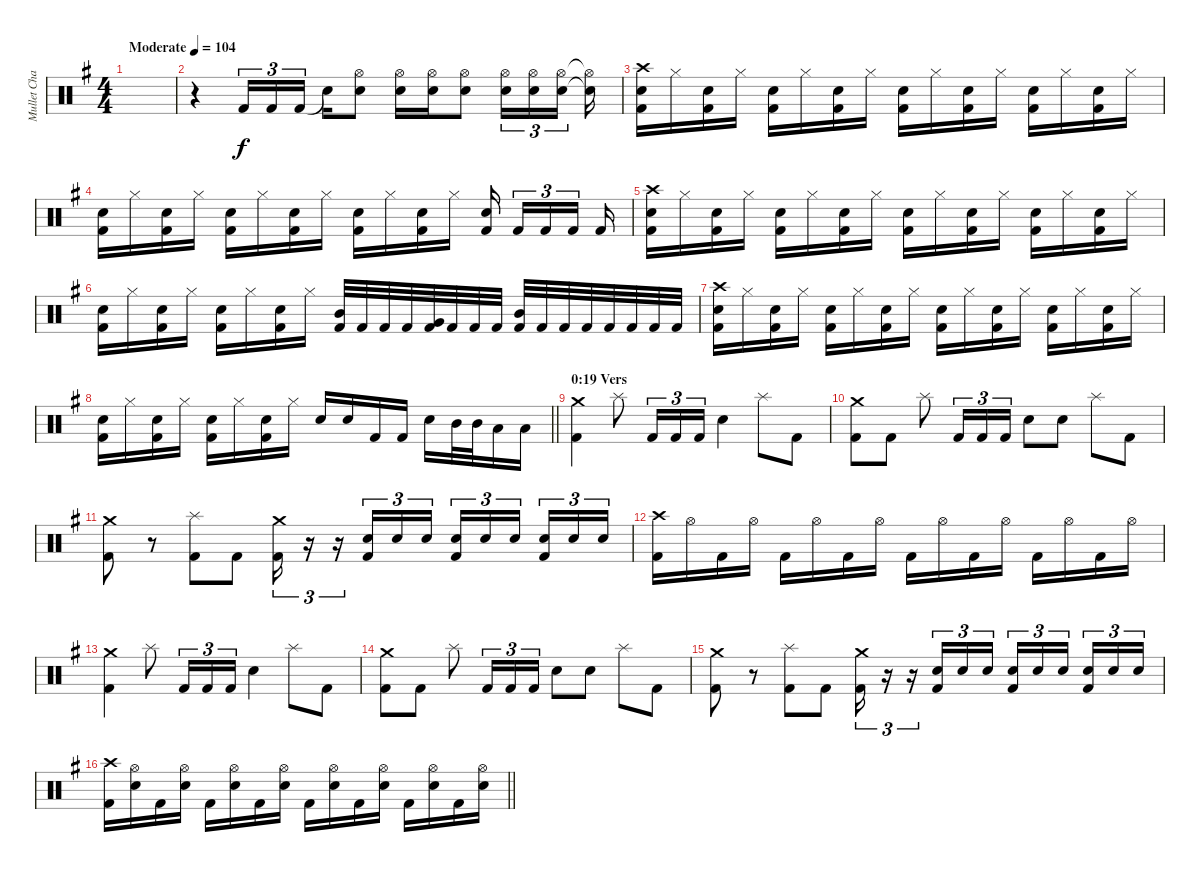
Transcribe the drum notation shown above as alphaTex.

\track ("Mullet Chad" "Mullet Cha") {instrument percussion}
\staff {score}
\articulation defaults
\ts (4 4)
\tempo (104 "Moderate")
\clef neutral
\ks g
|
r.4 "Kick (hit) 2".16{tu (3 2)} "Kick (hit) 2".16{tu (3 2)} "Kick (hit) 2".16{tu (3 2) beam splitsecondary} "Snare (hit)"{t}.16 ("Snare (hit) 2" "Hi-Hat (open)").8 ("Snare (hit) 2" "Hi-Hat (open)").16 ("Snare (hit) 2" "Hi-Hat (open)").16 ("Snare (hit) 2" "Hi-Hat (open)").8 ("Snare (hit) 2" "Hi-Hat (open)").16{tu (3 2)} ("Snare (hit) 2" "Hi-Hat (open)").16{tu (3 2)} ("Snare (hit) 2" "Hi-Hat (open)").16{tu (3 2) beam splitsecondary} ("Snare (hit) 2"{t} "Hi-Hat (open)"{t}).16 |
("Crash high (hit)" "Snare (hit) 2" "Kick (hit) 2").16 "Hi-Hat (closed)".16 ("Snare (hit) 2" "Kick (hit) 2").16 "Hi-Hat (closed)".16 ("Snare (hit) 2" "Kick (hit) 2").16 "Hi-Hat (closed)".16 ("Snare (hit) 2" "Kick (hit) 2").16 "Hi-Hat (closed)".16 ("Snare (hit) 2" "Kick (hit) 2").16 "Hi-Hat (closed)".16 ("Snare (hit) 2" "Kick (hit) 2").16 "Hi-Hat (closed)".16 ("Snare (hit) 2" "Kick (hit) 2").16 "Hi-Hat (closed)".16 ("Snare (hit) 2" "Kick (hit) 2").16 "Hi-Hat (closed)".16 |
("Snare (hit) 2" "Kick (hit) 2").16 "Hi-Hat (closed)".16 ("Snare (hit) 2" "Kick (hit) 2").16 "Hi-Hat (closed)".16 ("Snare (hit) 2" "Kick (hit) 2").16 "Hi-Hat (closed)".16 ("Snare (hit) 2" "Kick (hit) 2").16 "Hi-Hat (closed)".16 ("Snare (hit) 2" "Kick (hit) 2").16 "Hi-Hat (closed)".16 ("Snare (hit) 2" "Kick (hit) 2").16 "Hi-Hat (closed)".16 ("Snare (hit) 2" "Kick (hit) 2").16{beam splitsecondary} "Kick (hit) 2".16{tu (3 2)} "Kick (hit) 2".16{tu (3 2)} "Kick (hit) 2".16{tu (3 2) beam splitsecondary} "Kick (hit) 2".16 |
("Crash high (hit)" "Snare (hit) 2" "Kick (hit) 2").16 "Hi-Hat (closed)".16 ("Snare (hit) 2" "Kick (hit) 2").16 "Hi-Hat (closed)".16 ("Snare (hit) 2" "Kick (hit) 2").16 "Hi-Hat (closed)".16 ("Snare (hit) 2" "Kick (hit) 2").16 "Hi-Hat (closed)".16 ("Snare (hit) 2" "Kick (hit) 2").16 "Hi-Hat (closed)".16 ("Snare (hit) 2" "Kick (hit) 2").16 "Hi-Hat (closed)".16 ("Snare (hit) 2" "Kick (hit) 2").16 "Hi-Hat (closed)".16 ("Snare (hit) 2" "Kick (hit) 2").16 "Hi-Hat (closed)".16 |
("Snare (hit) 2" "Kick (hit) 2").16 "Hi-Hat (closed)".16 ("Snare (hit) 2" "Kick (hit) 2").16 "Hi-Hat (closed)".16 ("Snare (hit) 2" "Kick (hit) 2").16 "Hi-Hat (closed)".16 ("Snare (hit) 2" "Kick (hit) 2").16 "Hi-Hat (closed)".16 ("Mid Tom (hit)" "Kick (hit) 2").32 "Kick (hit) 2".32 "Kick (hit) 2".32 "Kick (hit) 2".32 ("Very Low Tom (hit)" "Kick (hit) 2").32 "Kick (hit) 2".32 "Kick (hit) 2".32 "Kick (hit) 2".32 ("Mid Tom (hit)" "Kick (hit) 2").32 "Kick (hit) 2".32 "Kick (hit) 2".32 "Kick (hit) 2".32 "Kick (hit) 2".32 "Kick (hit) 2".32 "Kick (hit) 2".32 "Kick (hit) 2".32 |
("Crash high (hit)" "Snare (hit) 2" "Kick (hit) 2").16 "Hi-Hat (closed)".16 ("Snare (hit) 2" "Kick (hit) 2").16 "Hi-Hat (closed)".16 ("Snare (hit) 2" "Kick (hit) 2").16 "Hi-Hat (closed)".16 ("Snare (hit) 2" "Kick (hit) 2").16 "Hi-Hat (closed)".16 ("Snare (hit) 2" "Kick (hit) 2").16 "Hi-Hat (closed)".16 ("Snare (hit) 2" "Kick (hit) 2").16 "Hi-Hat (closed)".16 ("Snare (hit) 2" "Kick (hit) 2").16 "Hi-Hat (closed)".16 ("Snare (hit) 2" "Kick (hit) 2").16 "Hi-Hat (closed)".16 |
\barLineRight lightlight
("Snare (hit) 2" "Kick (hit) 2").16 "Hi-Hat (closed)".16 ("Snare (hit) 2" "Kick (hit) 2").16 "Hi-Hat (closed)".16 ("Snare (hit) 2" "Kick (hit) 2").16 "Hi-Hat (closed)".16 ("Snare (hit) 2" "Kick (hit) 2").16 "Hi-Hat (closed)".16 "Snare (hit) 2".16 "Snare (hit) 2".16 "Kick (hit) 2".16 "Kick (hit) 2".16 "Snare (hit) 2".16 "Mid Tom (hit)".32 "Mid Tom (hit)".32 "Low Tom (hit)".16 "Low Tom (hit)".16 |
\section ("" "0:19 Vers")
("Crash medium (hit)" "Kick (hit) 2").4 "Splash (hit)".8 "Kick (hit) 2".16{tu (3 2)} "Kick (hit) 2".16{tu (3 2)} "Kick (hit) 2".16{tu (3 2)} "Snare (hit) 2".4 "Splash (hit)".8 "Kick (hit) 2".8 |
("Crash medium (hit)" "Kick (hit) 2").8 "Kick (hit) 2".8 "Splash (hit)".8 "Kick (hit) 2".16{tu (3 2)} "Kick (hit) 2".16{tu (3 2)} "Kick (hit) 2".16{tu (3 2)} "Snare (hit) 2".8 "Snare (hit) 2".8 "Splash (hit)".8 "Kick (hit) 2".8 |
("Crash medium (hit)" "Kick (hit) 2").8 r.8 ("Splash (hit)" "Kick (hit) 2").8 "Kick (hit) 2".8 ("Crash medium (hit)" "Kick (hit) 2").16{tu (3 2)} r.16{tu (3 2)} r.16{tu (3 2)} ("Snare (hit) 2" "Kick (hit) 2").16{tu (3 2)} "Snare (hit) 2".16{tu (3 2)} "Snare (hit) 2".16{tu (3 2)} ("Snare (hit) 2" "Kick (hit) 2").16{tu (3 2)} "Snare (hit) 2".16{tu (3 2)} "Snare (hit) 2".16{tu (3 2) beam splitsecondary} ("Snare (hit) 2" "Kick (hit) 2").16{tu (3 2)} "Snare (hit) 2".16{tu (3 2)} "Snare (hit) 2".16{tu (3 2)} |
("Crash high (hit)" "Kick (hit) 2").16 "Hi-Hat (open)".16 "Kick (hit) 2".16 "Hi-Hat (open)".16 "Kick (hit) 2".16 "Hi-Hat (open)".16 "Kick (hit) 2".16 "Hi-Hat (open)".16 "Kick (hit) 2".16 "Hi-Hat (open)".16 "Kick (hit) 2".16 "Hi-Hat (open)".16 "Kick (hit) 2".16 "Hi-Hat (open)".16 "Kick (hit) 2".16 "Hi-Hat (open)".16 |
("Crash medium (hit)" "Kick (hit) 2").4 "Splash (hit)".8 "Kick (hit) 2".16{tu (3 2)} "Kick (hit) 2".16{tu (3 2)} "Kick (hit) 2".16{tu (3 2)} "Snare (hit) 2".4 "Splash (hit)".8 "Kick (hit) 2".8 |
("Crash medium (hit)" "Kick (hit) 2").8 "Kick (hit) 2".8 "Splash (hit)".8 "Kick (hit) 2".16{tu (3 2)} "Kick (hit) 2".16{tu (3 2)} "Kick (hit) 2".16{tu (3 2)} "Snare (hit) 2".8 "Snare (hit) 2".8 "Splash (hit)".8 "Kick (hit) 2".8 |
("Crash medium (hit)" "Kick (hit) 2").8 r.8 ("Splash (hit)" "Kick (hit) 2").8 "Kick (hit) 2".8 ("Crash medium (hit)" "Kick (hit) 2").16{tu (3 2)} r.16{tu (3 2)} r.16{tu (3 2)} ("Snare (hit) 2" "Kick (hit) 2").16{tu (3 2)} "Snare (hit) 2".16{tu (3 2)} "Snare (hit) 2".16{tu (3 2)} ("Snare (hit) 2" "Kick (hit) 2").16{tu (3 2)} "Snare (hit) 2".16{tu (3 2)} "Snare (hit) 2".16{tu (3 2) beam splitsecondary} ("Snare (hit) 2" "Kick (hit) 2").16{tu (3 2)} "Snare (hit) 2".16{tu (3 2)} "Snare (hit) 2".16{tu (3 2)} |
\barLineRight lightlight
("Crash high (hit)" "Kick (hit) 2").16 ("Hi-Hat (open)" "Snare (hit) 2").16 "Kick (hit) 2".16 ("Hi-Hat (open)" "Snare (hit) 2").16 "Kick (hit) 2".16 ("Hi-Hat (open)" "Snare (hit) 2").16 "Kick (hit) 2".16 ("Hi-Hat (open)" "Snare (hit) 2").16 "Kick (hit) 2".16 ("Hi-Hat (open)" "Snare (hit) 2").16 "Kick (hit) 2".16 ("Hi-Hat (open)" "Snare (hit) 2").16 "Kick (hit) 2".16 ("Hi-Hat (open)" "Snare (hit) 2").16 "Kick (hit) 2".16 ("Hi-Hat (open)" "Snare (hit) 2").16
